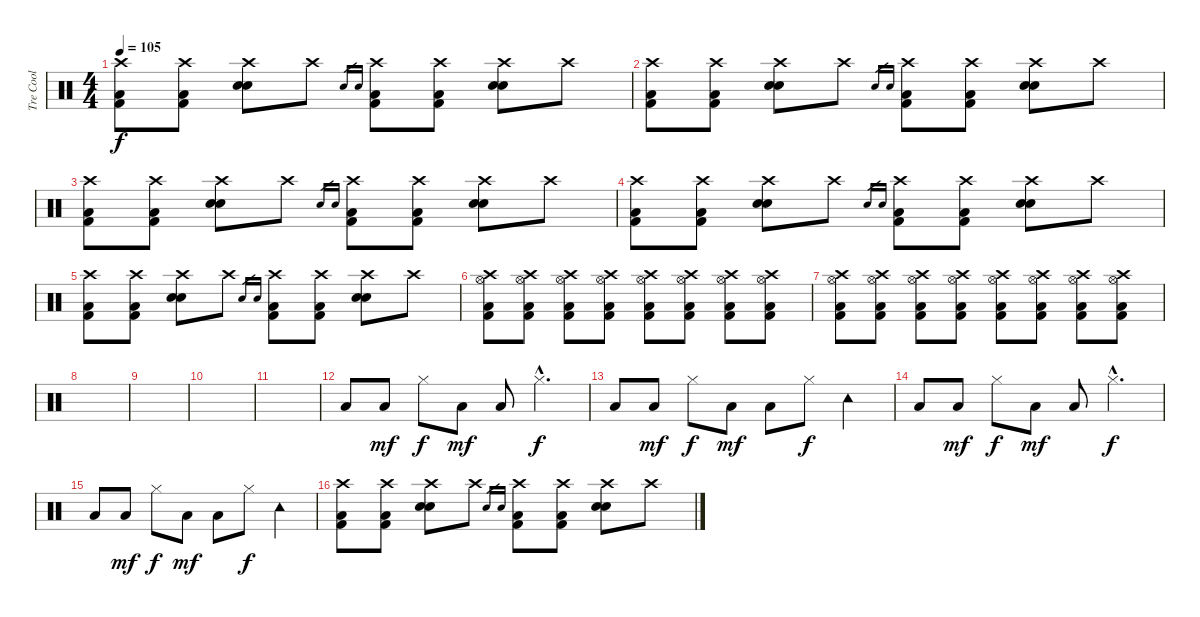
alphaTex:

\track ("Tre Cool" "Tre Cool") {instrument percussion}
\staff {score}
\articulation defaults
\ts (4 4)
\tempo 105
\clef neutral
\ks c
("Crash high (hit)" "Kick (hit) 2" "Low Floor Tom (hit)").8{dy f} ("Crash high (hit)" "Kick (hit) 2" "Low Floor Tom (hit)").8 ("Crash high (hit)" "Electric Snare (hit)" "Electric Snare (hit)").8 "Crash high (hit)".8 "Electric Snare (hit)".16{gr} "Electric Snare (hit)".16{gr} ("Crash high (hit)" "Kick (hit) 2" "Low Floor Tom (hit)").8 ("Crash high (hit)" "Kick (hit) 2" "Low Floor Tom (hit)").8 ("Crash high (hit)" "Electric Snare (hit)" "Electric Snare (hit)").8 "Crash high (hit)".8 |
("Crash high (hit)" "Kick (hit) 2" "Low Floor Tom (hit)").8 ("Crash high (hit)" "Kick (hit) 2" "Low Floor Tom (hit)").8 ("Crash high (hit)" "Electric Snare (hit)" "Electric Snare (hit)").8 "Crash high (hit)".8 "Electric Snare (hit)".16{gr} "Electric Snare (hit)".16{gr} ("Crash high (hit)" "Kick (hit) 2" "Low Floor Tom (hit)").8 ("Crash high (hit)" "Kick (hit) 2" "Low Floor Tom (hit)").8 ("Crash high (hit)" "Electric Snare (hit)" "Electric Snare (hit)").8 "Crash high (hit)".8 |
("Crash high (hit)" "Kick (hit) 2" "Low Floor Tom (hit)").8 ("Crash high (hit)" "Kick (hit) 2" "Low Floor Tom (hit)").8 ("Crash high (hit)" "Electric Snare (hit)" "Electric Snare (hit)").8 "Crash high (hit)".8 "Electric Snare (hit)".16{gr} "Electric Snare (hit)".16{gr} ("Crash high (hit)" "Kick (hit) 2" "Low Floor Tom (hit)").8 ("Crash high (hit)" "Kick (hit) 2" "Low Floor Tom (hit)").8 ("Crash high (hit)" "Electric Snare (hit)" "Electric Snare (hit)").8 "Crash high (hit)".8 |
("Crash high (hit)" "Kick (hit) 2" "Low Floor Tom (hit)").8 ("Crash high (hit)" "Kick (hit) 2" "Low Floor Tom (hit)").8 ("Crash high (hit)" "Electric Snare (hit)" "Electric Snare (hit)").8 "Crash high (hit)".8 "Electric Snare (hit)".16{gr} "Electric Snare (hit)".16{gr} ("Crash high (hit)" "Kick (hit) 2" "Low Floor Tom (hit)").8 ("Crash high (hit)" "Kick (hit) 2" "Low Floor Tom (hit)").8 ("Crash high (hit)" "Electric Snare (hit)" "Electric Snare (hit)").8 "Crash high (hit)".8 |
("Crash high (hit)" "Kick (hit) 2" "Low Floor Tom (hit)").8 ("Crash high (hit)" "Kick (hit) 2" "Low Floor Tom (hit)").8 ("Crash high (hit)" "Electric Snare (hit)" "Electric Snare (hit)").8 "Crash high (hit)".8 "Electric Snare (hit)".16{gr} "Electric Snare (hit)".16{gr} ("Crash high (hit)" "Kick (hit) 2" "Low Floor Tom (hit)").8 ("Crash high (hit)" "Kick (hit) 2" "Low Floor Tom (hit)").8 ("Crash high (hit)" "Electric Snare (hit)" "Electric Snare (hit)").8 "Crash high (hit)".8 |
("Crash high (hit)" "Hi-Hat (open)" "Kick (hit) 2" "Low Floor Tom (hit)").8 ("Crash high (hit)" "Hi-Hat (open)" "Kick (hit) 2" "Low Floor Tom (hit)").8 ("Crash high (hit)" "Hi-Hat (open)" "Kick (hit) 2" "Low Floor Tom (hit)").8 ("Crash high (hit)" "Hi-Hat (open)" "Kick (hit) 2" "Low Floor Tom (hit)").8 ("Crash high (hit)" "Hi-Hat (open)" "Kick (hit) 2" "Low Floor Tom (hit)").8 ("Crash high (hit)" "Hi-Hat (open)" "Kick (hit) 2" "Low Floor Tom (hit)").8 ("Crash high (hit)" "Hi-Hat (open)" "Kick (hit) 2" "Low Floor Tom (hit)").8 ("Crash high (hit)" "Hi-Hat (open)" "Kick (hit) 2" "Low Floor Tom (hit)").8 |
("Crash high (hit)" "Hi-Hat (open)" "Kick (hit) 2" "Low Floor Tom (hit)").8 ("Crash high (hit)" "Hi-Hat (open)" "Kick (hit) 2" "Low Floor Tom (hit)").8 ("Crash high (hit)" "Hi-Hat (open)" "Kick (hit) 2" "Low Floor Tom (hit)").8 ("Crash high (hit)" "Hi-Hat (open)" "Kick (hit) 2" "Low Floor Tom (hit)").8 ("Crash high (hit)" "Hi-Hat (open)" "Kick (hit) 2" "Low Floor Tom (hit)").8 ("Crash high (hit)" "Hi-Hat (open)" "Kick (hit) 2" "Low Floor Tom (hit)").8 ("Crash high (hit)" "Hi-Hat (open)" "Kick (hit) 2" "Low Floor Tom (hit)").8 ("Crash high (hit)" "Hi-Hat (open)" "Kick (hit) 2" "Low Floor Tom (hit)").8 |
|
|
|
|
"Low Floor Tom (hit)".8 "Low Floor Tom (hit)".8{dy mf} "Hi-Hat (closed)".8{dy f} "Low Floor Tom (hit)".8{dy mf} "Low Floor Tom (hit)".8 "Hi-Hat (closed)"{hac}.4{d dy f} |
"Low Floor Tom (hit)".8 "Low Floor Tom (hit)".8{dy mf} "Hi-Hat (closed)".8{dy f} "Low Floor Tom (hit)".8{dy mf} "Low Floor Tom (hit)".8 "Hi-Hat (closed)".8{dy f} "Tambourine (hit)".4 |
"Low Floor Tom (hit)".8 "Low Floor Tom (hit)".8{dy mf} "Hi-Hat (closed)".8{dy f} "Low Floor Tom (hit)".8{dy mf} "Low Floor Tom (hit)".8 "Hi-Hat (closed)"{hac}.4{d dy f} |
"Low Floor Tom (hit)".8 "Low Floor Tom (hit)".8{dy mf} "Hi-Hat (closed)".8{dy f} "Low Floor Tom (hit)".8{dy mf} "Low Floor Tom (hit)".8 "Hi-Hat (closed)".8{dy f} "Tambourine (hit)".4 |
("Crash high (hit)" "Kick (hit) 2" "Low Floor Tom (hit)").8 ("Crash high (hit)" "Kick (hit) 2" "Low Floor Tom (hit)").8 ("Crash high (hit)" "Electric Snare (hit)" "Electric Snare (hit)").8 "Crash high (hit)".8 "Electric Snare (hit)".16{gr} "Electric Snare (hit)".16{gr} ("Crash high (hit)" "Kick (hit) 2" "Low Floor Tom (hit)").8 ("Crash high (hit)" "Kick (hit) 2" "Low Floor Tom (hit)").8 ("Crash high (hit)" "Electric Snare (hit)" "Electric Snare (hit)").8 "Crash high (hit)".8
